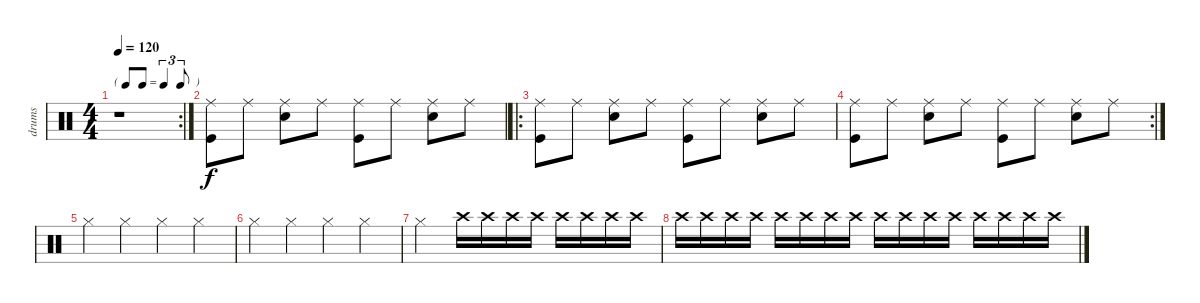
\track ("drums" "drums") {instrument percussion}
\staff {score}
\articulation defaults
\rc 2
\ts (4 4)
\tf triplet8th
\tempo 120
\clef neutral
\ks c
r.1{dy f} |
("Ride (middle)" "Kick (hit)").8 "Ride (middle)".8 ("Ride (middle)" "Electric Snare (hit)").8 "Ride (middle)".8 ("Ride (middle)" "Kick (hit)").8 "Ride (middle)".8 ("Ride (middle)" "Electric Snare (hit)").8 "Ride (middle)".8 |
\ro
("Ride (middle)" "Kick (hit)").8 "Ride (middle)".8 ("Ride (middle)" "Electric Snare (hit)").8 "Ride (middle)".8 ("Ride (middle)" "Kick (hit)").8 "Ride (middle)".8 ("Ride (middle)" "Electric Snare (hit)").8 "Ride (middle)".8 |
\rc 2
("Ride (middle)" "Kick (hit)").8 "Ride (middle)".8 ("Ride (middle)" "Electric Snare (hit)").8 "Ride (middle)".8 ("Ride (middle)" "Kick (hit)").8 "Ride (middle)".8 ("Ride (middle)" "Electric Snare (hit)").8 "Ride (middle)".8 |
"Hi-Hat (closed)".4 "Hi-Hat (closed)".4 "Hi-Hat (closed)".4 "Hi-Hat (closed)".4 |
"Hi-Hat (closed)".4 "Hi-Hat (closed)".4 "Hi-Hat (closed)".4 "Hi-Hat (closed)".4 |
"Hi-Hat (closed)".2 "Crash high (hit)".16 "Crash high (hit)".16 "Crash high (hit)".16 "Crash high (hit)".16 "Crash high (hit)".16 "Crash high (hit)".16 "Crash high (hit)".16 "Crash high (hit)".16 |
"Crash high (hit)".16 "Crash high (hit)".16 "Crash high (hit)".16 "Crash high (hit)".16 "Crash high (hit)".16 "Crash high (hit)".16 "Crash high (hit)".16 "Crash high (hit)".16 "Crash high (hit)".16 "Crash high (hit)".16 "Crash high (hit)".16 "Crash high (hit)".16 "Crash high (hit)".16 "Crash high (hit)".16 "Crash high (hit)".16 "Crash high (hit)".16
